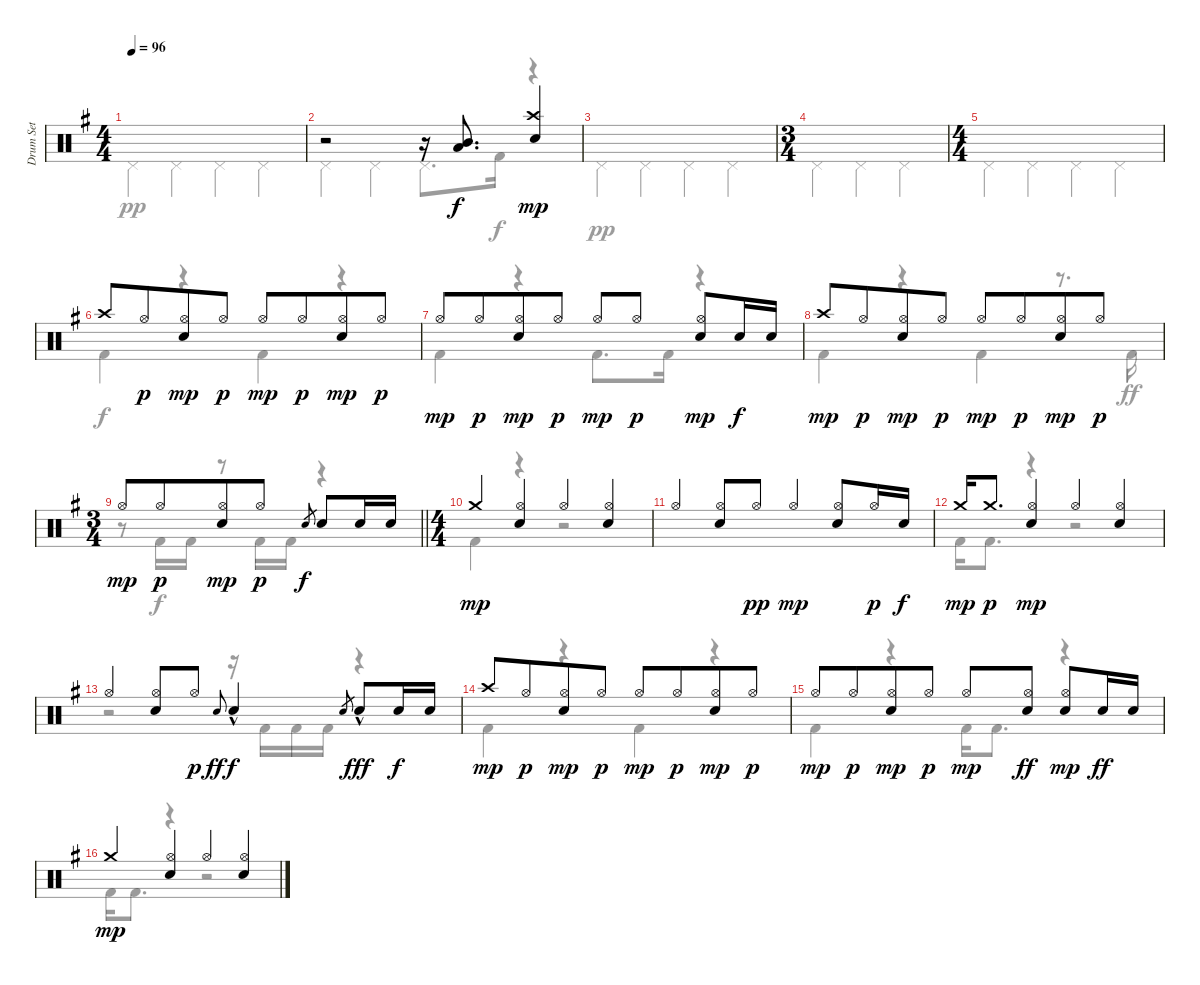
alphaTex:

\track ("Drum Set" "Drum Set") {instrument percussion}
\staff {score}
\articulation defaults
\voice
\ts (4 4)
\tempo 96
\clef neutral
\ks g
|
r.2 r.16 ("Mid Tom (hit)" "Low Tom (hit)").8{d} ("Electric Snare (hit)" "Crash high (hit)").4{dy mp} |
|
\ts (3 4)
|
\ts (4 4)
|
"Crash high (hit)".8 "Hi-Hat (open)".8{dy p beam merge} ("Hi-Hat (open)" "Electric Snare (hit)").8{dy mp} "Hi-Hat (open)".8{dy p} "Hi-Hat (open)".8{dy mp} "Hi-Hat (open)".8{dy p beam merge} ("Hi-Hat (open)" "Electric Snare (hit)").8{dy mp} "Hi-Hat (open)".8{dy p} |
"Hi-Hat (open)".8{dy mp} "Hi-Hat (open)".8{dy p beam merge} ("Hi-Hat (open)" "Electric Snare (hit)").8{dy mp} "Hi-Hat (open)".8{dy p} "Hi-Hat (open)".8{dy mp} "Hi-Hat (open)".8{dy p} ("Hi-Hat (open)" "Electric Snare (hit)").8{dy mp} "Electric Snare (hit)".16{dy f} "Electric Snare (hit)".16 |
"Crash high (hit)".8{dy mp} "Hi-Hat (open)".8{dy p beam merge} ("Hi-Hat (open)" "Electric Snare (hit)").8{dy mp} "Hi-Hat (open)".8{dy p} "Hi-Hat (open)".8{dy mp} "Hi-Hat (open)".8{dy p beam merge} ("Hi-Hat (open)" "Electric Snare (hit)").8{dy mp} "Hi-Hat (open)".8{dy p} |
\ts (3 4)
\barLineRight lightlight "Hi-Hat (open)".8{dy mp} "Hi-Hat (open)".8{dy p beam merge}
("Hi-Hat (open)" "Electric Snare (hit)").8{dy mp} "Hi-Hat (open)".8{dy p} "Electric Snare (hit)".8{gr dy f} "Electric Snare (hit)".8 "Electric Snare (hit)".16 "Electric Snare (hit)".16 |
\ts (4 4)
"Crash medium (hit)".4{dy mp} ("Hi-Hat (open)" "Electric Snare (hit)").4 "Hi-Hat (open)".4 ("Hi-Hat (open)" "Electric Snare (hit)").4 |
"Hi-Hat (open)".4{beam Up} ("Hi-Hat (open)" "Electric Snare (hit)").8{beam Up} "Hi-Hat (open)".8{dy pp beam Up} "Hi-Hat (open)".4{dy mp beam Up} ("Hi-Hat (open)" "Electric Snare (hit)").8{beam Up} "Hi-Hat (open)".16{dy p beam Up} "Electric Snare (hit)".16{dy f beam Up} |
"Crash medium (hit)".16{dy mp} "Crash medium (hit)".8{d dy p} ("Hi-Hat (open)" "Electric Snare (hit)").4{dy mp} "Hi-Hat (open)".4 ("Hi-Hat (open)" "Electric Snare (hit)").4 |
"Hi-Hat (open)".4 ("Hi-Hat (open)" "Electric Snare (hit)").8 "Hi-Hat (open)".8{dy p} "Electric Snare (hit)".8{gr onbeat dy ff} "Electric Snare (hit)"{hac}.4{dy f} "Electric Snare (hit)".8{gr} "Electric Snare (hit)"{hac}.8{dy fff} "Electric Snare (hit)".16{dy f} "Electric Snare (hit)".16 |
"Crash high (hit)".8{dy mp} "Hi-Hat (open)".8{dy p beam merge} ("Hi-Hat (open)" "Electric Snare (hit)").8{dy mp} "Hi-Hat (open)".8{dy p} "Hi-Hat (open)".8{dy mp} "Hi-Hat (open)".8{dy p beam merge} ("Hi-Hat (open)" "Electric Snare (hit)").8{dy mp} "Hi-Hat (open)".8{dy p} |
"Hi-Hat (open)".8{dy mp} "Hi-Hat (open)".8{dy p beam merge} ("Hi-Hat (open)" "Electric Snare (hit)").8{dy mp} "Hi-Hat (open)".8{dy p} "Hi-Hat (open)".8{dy mp} ("Hi-Hat (open)" "Electric Snare (hit)").8{dy ff} ("Electric Snare (hit)" "Hi-Hat (open)").8{dy mp} "Electric Snare (hit)".16{dy ff} "Electric Snare (hit)".16 |
"Crash medium (hit)".4{dy mp} ("Hi-Hat (open)" "Electric Snare (hit)").4 "Hi-Hat (open)".4 ("Hi-Hat (open)" "Electric Snare (hit)").4
\voice
\clef neutral
\ottava regular
\simile none
\ks g "Pedal Hi-Hat (hit)".4{dy pp} "Pedal Hi-Hat (hit)".4 "Pedal Hi-Hat (hit)".4 "Pedal Hi-Hat (hit)".4
|
"Pedal Hi-Hat (hit)".4 "Pedal Hi-Hat (hit)".4 "Pedal Hi-Hat (hit)".8{d} "Kick (hit) 2".16{dy f} r.4 |
"Pedal Hi-Hat (hit)".4{dy pp} "Pedal Hi-Hat (hit)".4 "Pedal Hi-Hat (hit)".4 "Pedal Hi-Hat (hit)".4 |
"Pedal Hi-Hat (hit)".4 "Pedal Hi-Hat (hit)".4 "Pedal Hi-Hat (hit)".4 |
"Pedal Hi-Hat (hit)".4 "Pedal Hi-Hat (hit)".4 "Pedal Hi-Hat (hit)".4 "Pedal Hi-Hat (hit)".4 |
"Kick (hit) 2".4{dy f} r.4 "Kick (hit) 2".4 r.4 |
"Kick (hit) 2".4 r.4 "Kick (hit) 2".8{d} "Kick (hit) 2".16 r.4 |
"Kick (hit) 2".4 r.4 "Kick (hit) 2".4 r.8{d} "Kick (hit) 2".16{dy ff} |
\barLineRight lightlight
r.8 "Kick (hit) 2".16{dy f} "Kick (hit) 2".16 r.8 "Kick (hit) 2".16 "Kick (hit) 2".16 r.4 |
"Kick (hit) 2".4 r.4 r.2 |
|
"Kick (hit) 2".16 "Kick (hit) 2".8{d} r.4 r.2 |
r.2 r.16 "Kick (hit) 2".16 "Kick (hit) 2".16 "Kick (hit) 2".16 r.4 |
"Kick (hit) 2".4 r.4 "Kick (hit) 2".4 r.4 |
"Kick (hit) 2".4 r.4 "Kick (hit) 2".16 "Kick (hit) 2".8{d} r.4 |
"Kick (hit) 2".16 "Kick (hit) 2".8{d} r.4 r.2
